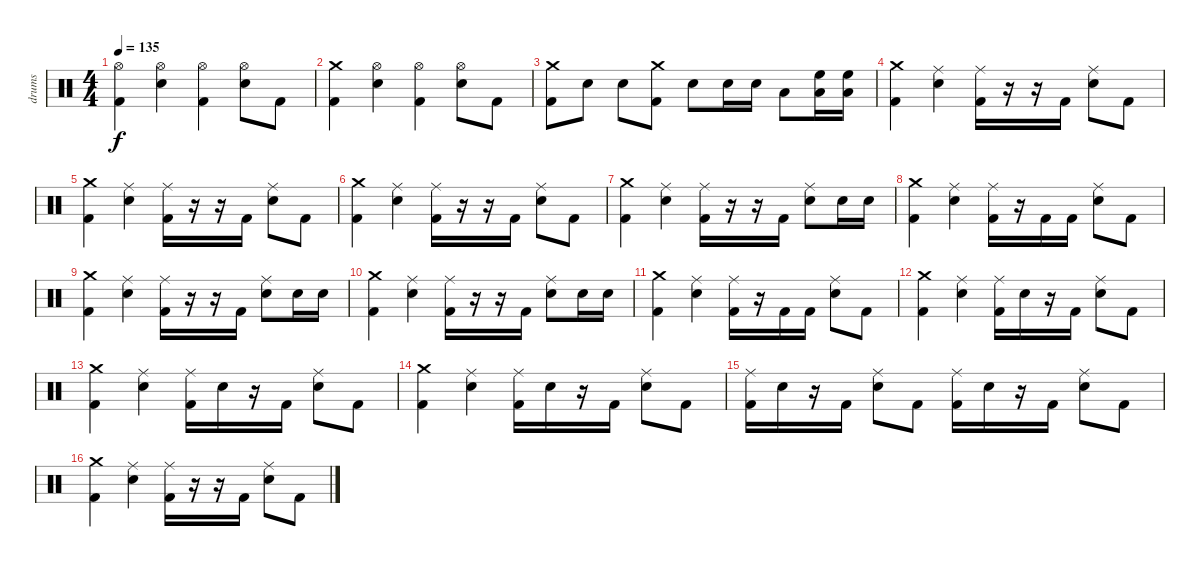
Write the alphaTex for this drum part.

\track ("drums" "drums") {instrument percussion}
\staff {score}
\articulation defaults
\ts (4 4)
\tempo 135
\clef neutral
\ks c
("Hi-Hat (open)" "Kick (hit) 2").4{dy f} ("Hi-Hat (open)" "Electric Snare (hit)").4 ("Hi-Hat (open)" "Kick (hit) 2").4 ("Hi-Hat (open)" "Electric Snare (hit)").8 "Kick (hit) 2".8 |
("Crash medium (hit)" "Kick (hit) 2").4 ("Hi-Hat (open)" "Electric Snare (hit)").4 ("Hi-Hat (open)" "Kick (hit) 2").4 ("Hi-Hat (open)" "Electric Snare (hit)").8 "Kick (hit) 2".8 |
("Crash medium (hit)" "Kick (hit) 2").8 "Electric Snare (hit)".8 "Electric Snare (hit)".8 ("Crash medium (hit)" "Kick (hit) 2").8 "Electric Snare (hit)".8 "Electric Snare (hit)".16 "Electric Snare (hit)".16 "Low Tom (hit)".8 ("High Floor Tom (hit)" "Low Tom (hit)").16 ("Low Tom (hit)" "High Floor Tom (hit)").16 |
("Crash medium (hit)" "Kick (hit) 2").4 ("Ride (middle)" "Electric Snare (hit)").4 ("Ride (middle)" "Kick (hit) 2").16 r.16 r.16 "Kick (hit) 2".16 ("Ride (middle)" "Electric Snare (hit)").8 "Kick (hit) 2".8 |
("Crash medium (hit)" "Kick (hit) 2").4 ("Ride (middle)" "Electric Snare (hit)").4 ("Ride (middle)" "Kick (hit) 2").16 r.16 r.16 "Kick (hit) 2".16 ("Ride (middle)" "Electric Snare (hit)").8 "Kick (hit) 2".8 |
("Crash medium (hit)" "Kick (hit) 2").4 ("Ride (middle)" "Electric Snare (hit)").4 ("Ride (middle)" "Kick (hit) 2").16 r.16 r.16 "Kick (hit) 2".16 ("Ride (middle)" "Electric Snare (hit)").8 "Kick (hit) 2".8 |
("Crash medium (hit)" "Kick (hit) 2").4 ("Ride (middle)" "Electric Snare (hit)").4 ("Ride (middle)" "Kick (hit) 2").16 r.16 r.16 "Kick (hit) 2".16 ("Ride (middle)" "Electric Snare (hit)").8 "Electric Snare (hit)".16 "Electric Snare (hit)".16 |
("Crash medium (hit)" "Kick (hit) 2").4 ("Ride (middle)" "Electric Snare (hit)").4 ("Ride (middle)" "Kick (hit) 2").16 r.16 "Kick (hit) 2".16 "Kick (hit) 2".16 ("Ride (middle)" "Electric Snare (hit)").8 "Kick (hit) 2".8 |
("Crash medium (hit)" "Kick (hit) 2").4 ("Ride (middle)" "Electric Snare (hit)").4 ("Ride (middle)" "Kick (hit) 2").16 r.16 r.16 "Kick (hit) 2".16 ("Ride (middle)" "Electric Snare (hit)").8 "Electric Snare (hit)".16 "Electric Snare (hit)".16 |
("Crash medium (hit)" "Kick (hit) 2").4 ("Ride (middle)" "Electric Snare (hit)").4 ("Ride (middle)" "Kick (hit) 2").16 r.16 r.16 "Kick (hit) 2".16 ("Ride (middle)" "Electric Snare (hit)").8 "Electric Snare (hit)".16 "Electric Snare (hit)".16 |
("Crash medium (hit)" "Kick (hit) 2").4 ("Ride (middle)" "Electric Snare (hit)").4 ("Ride (middle)" "Kick (hit) 2").16 r.16 "Kick (hit) 2".16 "Kick (hit) 2".16 ("Ride (middle)" "Electric Snare (hit)").8 "Kick (hit) 2".8 |
("Crash medium (hit)" "Kick (hit) 2").4 ("Ride (middle)" "Electric Snare (hit)").4 ("Ride (middle)" "Kick (hit) 2").16 "Electric Snare (hit)".16 r.16 "Kick (hit) 2".16 ("Ride (middle)" "Electric Snare (hit)").8 "Kick (hit) 2".8 |
("Crash medium (hit)" "Kick (hit) 2").4 ("Ride (middle)" "Electric Snare (hit)").4 ("Ride (middle)" "Kick (hit) 2").16 "Electric Snare (hit)".16 r.16 "Kick (hit) 2".16 ("Ride (middle)" "Electric Snare (hit)").8 "Kick (hit) 2".8 |
("Crash medium (hit)" "Kick (hit) 2").4 ("Ride (middle)" "Electric Snare (hit)").4 ("Ride (middle)" "Kick (hit) 2").16 "Electric Snare (hit)".16 r.16 "Kick (hit) 2".16 ("Ride (middle)" "Electric Snare (hit)").8 "Kick (hit) 2".8 |
("Ride (middle)" "Kick (hit) 2").16 "Electric Snare (hit)".16 r.16 "Kick (hit) 2".16 ("Ride (middle)" "Electric Snare (hit)").8 "Kick (hit) 2".8 ("Ride (middle)" "Kick (hit) 2").16 "Electric Snare (hit)".16 r.16 "Kick (hit) 2".16 ("Ride (middle)" "Electric Snare (hit)").8 "Kick (hit) 2".8 |
("Crash medium (hit)" "Kick (hit) 2").4 ("Ride (middle)" "Electric Snare (hit)").4 ("Ride (middle)" "Kick (hit) 2").16 r.16 r.16 "Kick (hit) 2".16 ("Ride (middle)" "Electric Snare (hit)").8 "Kick (hit) 2".8
